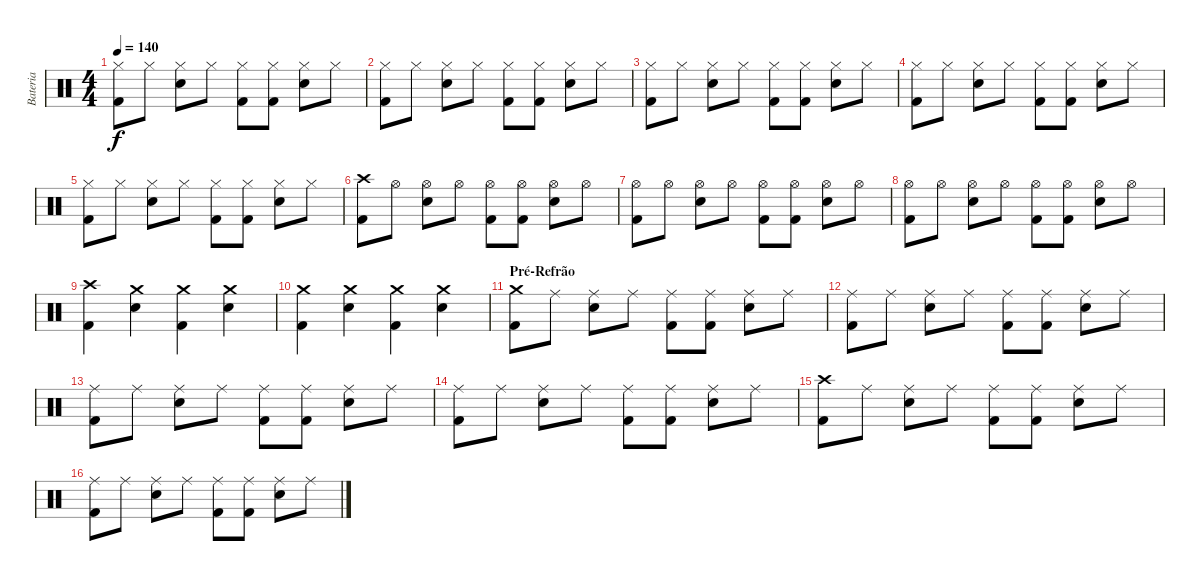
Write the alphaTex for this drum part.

\track ("Bateria" "Bateria") {instrument percussion}
\staff {score}
\articulation defaults
\ts (4 4)
\tempo 140
\clef neutral
\ks c
("Hi-Hat (closed)" "Kick (hit) 2").8{dy f} "Hi-Hat (closed)".8 ("Hi-Hat (closed)" "Electric Snare (hit)").8 "Hi-Hat (closed)".8 ("Hi-Hat (closed)" "Kick (hit) 2").8 ("Hi-Hat (closed)" "Kick (hit) 2").8 ("Hi-Hat (closed)" "Electric Snare (hit)").8 "Hi-Hat (closed)".8 |
("Hi-Hat (closed)" "Kick (hit) 2").8 "Hi-Hat (closed)".8 ("Hi-Hat (closed)" "Electric Snare (hit)").8 "Hi-Hat (closed)".8 ("Hi-Hat (closed)" "Kick (hit) 2").8 ("Hi-Hat (closed)" "Kick (hit) 2").8 ("Hi-Hat (closed)" "Electric Snare (hit)").8 "Hi-Hat (closed)".8 |
("Hi-Hat (closed)" "Kick (hit) 2").8 "Hi-Hat (closed)".8 ("Hi-Hat (closed)" "Electric Snare (hit)").8 "Hi-Hat (closed)".8 ("Hi-Hat (closed)" "Kick (hit) 2").8 ("Hi-Hat (closed)" "Kick (hit) 2").8 ("Hi-Hat (closed)" "Electric Snare (hit)").8 "Hi-Hat (closed)".8 |
("Hi-Hat (closed)" "Kick (hit) 2").8 "Hi-Hat (closed)".8 ("Hi-Hat (closed)" "Electric Snare (hit)").8 "Hi-Hat (closed)".8 ("Hi-Hat (closed)" "Kick (hit) 2").8 ("Hi-Hat (closed)" "Kick (hit) 2").8 ("Hi-Hat (closed)" "Electric Snare (hit)").8 "Hi-Hat (closed)".8 |
("Hi-Hat (closed)" "Kick (hit) 2").8 "Hi-Hat (closed)".8 ("Hi-Hat (closed)" "Electric Snare (hit)").8 "Hi-Hat (closed)".8 ("Hi-Hat (closed)" "Kick (hit) 2").8 ("Hi-Hat (closed)" "Kick (hit) 2").8 ("Hi-Hat (closed)" "Electric Snare (hit)").8 "Hi-Hat (closed)".8 |
("Crash high (hit)" "Kick (hit) 2").8 "Hi-Hat (open)".8 ("Hi-Hat (open)" "Electric Snare (hit)").8 "Hi-Hat (open)".8 ("Hi-Hat (open)" "Kick (hit) 2").8 ("Hi-Hat (open)" "Kick (hit) 2").8 ("Hi-Hat (open)" "Electric Snare (hit)").8 "Hi-Hat (open)".8 |
("Hi-Hat (open)" "Kick (hit) 2").8 "Hi-Hat (open)".8 ("Hi-Hat (open)" "Electric Snare (hit)").8 "Hi-Hat (open)".8 ("Hi-Hat (open)" "Kick (hit) 2").8 ("Hi-Hat (open)" "Kick (hit) 2").8 ("Hi-Hat (open)" "Electric Snare (hit)").8 "Hi-Hat (open)".8 |
("Hi-Hat (open)" "Kick (hit) 2").8 "Hi-Hat (open)".8 ("Hi-Hat (open)" "Electric Snare (hit)").8 "Hi-Hat (open)".8 ("Hi-Hat (open)" "Kick (hit) 2").8 ("Hi-Hat (open)" "Kick (hit) 2").8 ("Hi-Hat (open)" "Electric Snare (hit)").8 "Hi-Hat (open)".8 |
("Crash high (hit)" "Kick (hit) 2").4 ("Crash medium (hit)" "Electric Snare (hit)").4 ("Crash medium (hit)" "Kick (hit) 2").4 ("Crash medium (hit)" "Electric Snare (hit)").4 |
("Crash medium (hit)" "Kick (hit) 2").4 ("Crash medium (hit)" "Electric Snare (hit)").4 ("Crash medium (hit)" "Kick (hit) 2").4 ("Crash medium (hit)" "Electric Snare (hit)").4 |
\section ("" "Pré-Refrão")
("Crash medium (hit)" "Kick (hit) 2").8 "Ride (middle)".8 ("Ride (middle)" "Electric Snare (hit)").8 "Ride (middle)".8 ("Ride (middle)" "Kick (hit) 2").8 ("Ride (middle)" "Kick (hit) 2").8 ("Ride (middle)" "Electric Snare (hit)").8 "Ride (middle)".8 |
("Ride (middle)" "Kick (hit) 2").8 "Ride (middle)".8 ("Ride (middle)" "Electric Snare (hit)").8 "Ride (middle)".8 ("Ride (middle)" "Kick (hit) 2").8 ("Ride (middle)" "Kick (hit) 2").8 ("Ride (middle)" "Electric Snare (hit)").8 "Ride (middle)".8 |
("Ride (middle)" "Kick (hit) 2").8 "Ride (middle)".8 ("Ride (middle)" "Electric Snare (hit)").8 "Ride (middle)".8 ("Ride (middle)" "Kick (hit) 2").8 ("Ride (middle)" "Kick (hit) 2").8 ("Ride (middle)" "Electric Snare (hit)").8 "Ride (middle)".8 |
("Ride (middle)" "Kick (hit) 2").8 "Ride (middle)".8 ("Ride (middle)" "Electric Snare (hit)").8 "Ride (middle)".8 ("Ride (middle)" "Kick (hit) 2").8 ("Ride (middle)" "Kick (hit) 2").8 ("Ride (middle)" "Electric Snare (hit)").8 "Ride (middle)".8 |
("Crash high (hit)" "Kick (hit) 2").8 "Ride (middle)".8 ("Ride (middle)" "Electric Snare (hit)").8 "Ride (middle)".8 ("Ride (middle)" "Kick (hit) 2").8 ("Ride (middle)" "Kick (hit) 2").8 ("Ride (middle)" "Electric Snare (hit)").8 "Ride (middle)".8 |
("Ride (middle)" "Kick (hit) 2").8 "Ride (middle)".8 ("Ride (middle)" "Electric Snare (hit)").8 "Ride (middle)".8 ("Ride (middle)" "Kick (hit) 2").8 ("Ride (middle)" "Kick (hit) 2").8 ("Ride (middle)" "Electric Snare (hit)").8 "Ride (middle)".8
